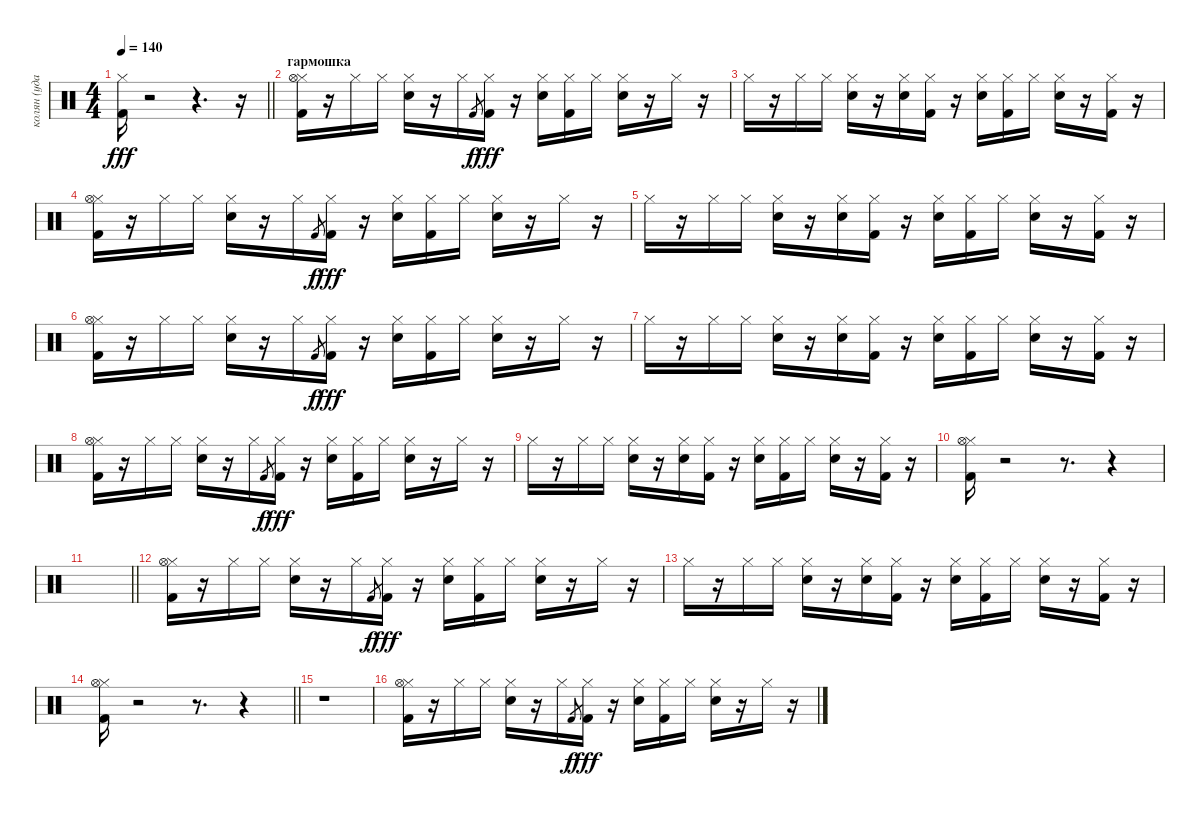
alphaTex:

\track ("колян (ударные)" "колян (уда") {instrument percussion}
\staff {score}
\articulation defaults
\ts (4 4)
\tempo 140
\clef neutral
\barLineRight lightlight
\ks c
("Hi-Hat (closed)" "Kick (hit) 2").16{dy fff} r.2 r.4{d} r.16 |
\section ("" "гармошка")
("Hi-Hat (closed)" "Hi-Hat (open)" "Kick (hit) 2").16 r.16 "Hi-Hat (closed)".16 "Hi-Hat (closed)".16 ("Hi-Hat (closed)" "Electric Snare (hit)").16 r.16 "Hi-Hat (closed)".16 "Kick (hit) 2".8{gr dy f} ("Hi-Hat (closed)" "Kick (hit) 2").16{dy fff} r.16 ("Hi-Hat (closed)" "Electric Snare (hit)").16 ("Hi-Hat (closed)" "Kick (hit) 2").16 "Hi-Hat (closed)".16 ("Hi-Hat (closed)" "Electric Snare (hit)").16 r.16 "Hi-Hat (closed)".16 r.16 |
"Hi-Hat (closed)".16 r.16 "Hi-Hat (closed)".16 "Hi-Hat (closed)".16 ("Hi-Hat (closed)" "Electric Snare (hit)").16 r.16 ("Hi-Hat (closed)" "Electric Snare (hit)").16 ("Hi-Hat (closed)" "Kick (hit) 2").16 r.16 ("Hi-Hat (closed)" "Electric Snare (hit)").16 ("Hi-Hat (closed)" "Kick (hit) 2").16 "Hi-Hat (closed)".16 ("Hi-Hat (closed)" "Electric Snare (hit)").16 r.16 ("Hi-Hat (closed)" "Kick (hit) 2").16 r.16 |
("Hi-Hat (closed)" "Hi-Hat (open)" "Kick (hit) 2").16 r.16 "Hi-Hat (closed)".16 "Hi-Hat (closed)".16 ("Hi-Hat (closed)" "Electric Snare (hit)").16 r.16 "Hi-Hat (closed)".16 "Kick (hit) 2".8{gr dy f} ("Hi-Hat (closed)" "Kick (hit) 2").16{dy fff} r.16 ("Hi-Hat (closed)" "Electric Snare (hit)").16 ("Hi-Hat (closed)" "Kick (hit) 2").16 "Hi-Hat (closed)".16 ("Hi-Hat (closed)" "Electric Snare (hit)").16 r.16 "Hi-Hat (closed)".16 r.16 |
"Hi-Hat (closed)".16 r.16 "Hi-Hat (closed)".16 "Hi-Hat (closed)".16 ("Hi-Hat (closed)" "Electric Snare (hit)").16 r.16 ("Hi-Hat (closed)" "Electric Snare (hit)").16 ("Hi-Hat (closed)" "Kick (hit) 2").16 r.16 ("Hi-Hat (closed)" "Electric Snare (hit)").16 ("Hi-Hat (closed)" "Kick (hit) 2").16 "Hi-Hat (closed)".16 ("Hi-Hat (closed)" "Electric Snare (hit)").16 r.16 ("Hi-Hat (closed)" "Kick (hit) 2").16 r.16 |
("Hi-Hat (closed)" "Hi-Hat (open)" "Kick (hit) 2").16 r.16 "Hi-Hat (closed)".16 "Hi-Hat (closed)".16 ("Hi-Hat (closed)" "Electric Snare (hit)").16 r.16 "Hi-Hat (closed)".16 "Kick (hit) 2".8{gr dy f} ("Hi-Hat (closed)" "Kick (hit) 2").16{dy fff} r.16 ("Hi-Hat (closed)" "Electric Snare (hit)").16 ("Hi-Hat (closed)" "Kick (hit) 2").16 "Hi-Hat (closed)".16 ("Hi-Hat (closed)" "Electric Snare (hit)").16 r.16 "Hi-Hat (closed)".16 r.16 |
"Hi-Hat (closed)".16 r.16 "Hi-Hat (closed)".16 "Hi-Hat (closed)".16 ("Hi-Hat (closed)" "Electric Snare (hit)").16 r.16 ("Hi-Hat (closed)" "Electric Snare (hit)").16 ("Hi-Hat (closed)" "Kick (hit) 2").16 r.16 ("Hi-Hat (closed)" "Electric Snare (hit)").16 ("Hi-Hat (closed)" "Kick (hit) 2").16 "Hi-Hat (closed)".16 ("Hi-Hat (closed)" "Electric Snare (hit)").16 r.16 ("Hi-Hat (closed)" "Kick (hit) 2").16 r.16 |
("Hi-Hat (closed)" "Hi-Hat (open)" "Kick (hit) 2").16 r.16 "Hi-Hat (closed)".16 "Hi-Hat (closed)".16 ("Hi-Hat (closed)" "Electric Snare (hit)").16 r.16 "Hi-Hat (closed)".16 "Kick (hit) 2".8{gr dy f} ("Hi-Hat (closed)" "Kick (hit) 2").16{dy fff} r.16 ("Hi-Hat (closed)" "Electric Snare (hit)").16 ("Hi-Hat (closed)" "Kick (hit) 2").16 "Hi-Hat (closed)".16 ("Hi-Hat (closed)" "Electric Snare (hit)").16 r.16 "Hi-Hat (closed)".16 r.16 |
"Hi-Hat (closed)".16 r.16 "Hi-Hat (closed)".16 "Hi-Hat (closed)".16 ("Hi-Hat (closed)" "Electric Snare (hit)").16 r.16 ("Hi-Hat (closed)" "Electric Snare (hit)").16 ("Hi-Hat (closed)" "Kick (hit) 2").16 r.16 ("Hi-Hat (closed)" "Electric Snare (hit)").16 ("Hi-Hat (closed)" "Kick (hit) 2").16 "Hi-Hat (closed)".16 ("Hi-Hat (closed)" "Electric Snare (hit)").16 r.16 ("Hi-Hat (closed)" "Kick (hit) 2").16 r.16 |
("Hi-Hat (closed)" "Hi-Hat (open)" "Kick (hit) 2").16 r.2 r.8{d} r.4 |
\barLineRight lightlight
|
("Hi-Hat (closed)" "Hi-Hat (open)" "Kick (hit) 2").16 r.16 "Hi-Hat (closed)".16 "Hi-Hat (closed)".16 ("Hi-Hat (closed)" "Electric Snare (hit)").16 r.16 "Hi-Hat (closed)".16 "Kick (hit) 2".8{gr dy f} ("Hi-Hat (closed)" "Kick (hit) 2").16{dy fff} r.16 ("Hi-Hat (closed)" "Electric Snare (hit)").16 ("Hi-Hat (closed)" "Kick (hit) 2").16 "Hi-Hat (closed)".16 ("Hi-Hat (closed)" "Electric Snare (hit)").16 r.16 "Hi-Hat (closed)".16 r.16 |
"Hi-Hat (closed)".16 r.16 "Hi-Hat (closed)".16 "Hi-Hat (closed)".16 ("Hi-Hat (closed)" "Electric Snare (hit)").16 r.16 ("Hi-Hat (closed)" "Electric Snare (hit)").16 ("Hi-Hat (closed)" "Kick (hit) 2").16 r.16 ("Hi-Hat (closed)" "Electric Snare (hit)").16 ("Hi-Hat (closed)" "Kick (hit) 2").16 "Hi-Hat (closed)".16 ("Hi-Hat (closed)" "Electric Snare (hit)").16 r.16 ("Hi-Hat (closed)" "Kick (hit) 2").16 r.16 |
\barLineRight lightlight
("Hi-Hat (closed)" "Hi-Hat (open)" "Kick (hit) 2").16 r.2 r.8{d} r.4 |
r.1 |
("Hi-Hat (closed)" "Hi-Hat (open)" "Kick (hit) 2").16 r.16 "Hi-Hat (closed)".16 "Hi-Hat (closed)".16 ("Hi-Hat (closed)" "Electric Snare (hit)").16 r.16 "Hi-Hat (closed)".16 "Kick (hit) 2".8{gr dy f} ("Hi-Hat (closed)" "Kick (hit) 2").16{dy fff} r.16 ("Hi-Hat (closed)" "Electric Snare (hit)").16 ("Hi-Hat (closed)" "Kick (hit) 2").16 "Hi-Hat (closed)".16 ("Hi-Hat (closed)" "Electric Snare (hit)").16 r.16 "Hi-Hat (closed)".16 r.16
